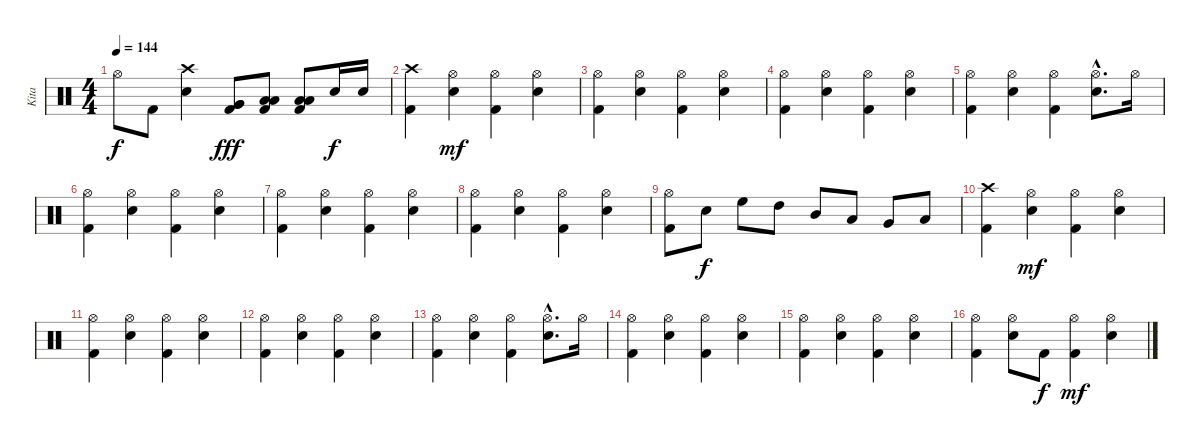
\track ("Kita" "Kita") {instrument percussion}
\staff {score}
\articulation defaults
\ts (4 4)
\tempo 144
\clef neutral
\ks c "Hi-Hat (open)".8{dy f} "Kick (hit) 2".8
("Crash high (hit)" "Snare (hit) 2").4 ("Kick (hit) 2" "Very Low Tom (hit)" "Very Low Tom (hit)").8{dy fff} ("Kick (hit) 2" "Low Floor Tom (hit)" "Low Floor Tom (hit)").8 ("Kick (hit) 2" "Low Floor Tom (hit)" "Low Floor Tom (hit)").8 "Snare (hit) 2".16{dy f} "Snare (hit) 2".16 |
("Kick (hit) 2" "Crash high (hit)").4 ("Hi-Hat (open)" "Snare (hit) 2").4{dy mf} ("Kick (hit) 2" "Hi-Hat (open)").4 ("Hi-Hat (open)" "Snare (hit) 2").4 |
("Kick (hit) 2" "Hi-Hat (open)").4 ("Hi-Hat (open)" "Snare (hit) 2").4 ("Kick (hit) 2" "Hi-Hat (open)").4 ("Hi-Hat (open)" "Snare (hit) 2").4 |
("Kick (hit) 2" "Hi-Hat (open)").4 ("Hi-Hat (open)" "Snare (hit) 2").4 ("Kick (hit) 2" "Hi-Hat (open)").4 ("Hi-Hat (open)" "Snare (hit) 2").4 |
("Kick (hit) 2" "Hi-Hat (open)").4 ("Hi-Hat (open)" "Snare (hit) 2").4 ("Kick (hit) 2" "Hi-Hat (open)").4 ("Hi-Hat (open)"{hac} "Snare (hit) 2"{hac}).8{d} "Hi-Hat (open)".16 |
("Kick (hit) 2" "Hi-Hat (open)").4 ("Hi-Hat (open)" "Snare (hit) 2").4 ("Kick (hit) 2" "Hi-Hat (open)").4 ("Hi-Hat (open)" "Snare (hit) 2").4 |
("Kick (hit) 2" "Hi-Hat (open)").4 ("Hi-Hat (open)" "Snare (hit) 2").4 ("Kick (hit) 2" "Hi-Hat (open)").4 ("Hi-Hat (open)" "Snare (hit) 2").4 |
("Kick (hit) 2" "Hi-Hat (open)").4 ("Hi-Hat (open)" "Snare (hit) 2").4 ("Kick (hit) 2" "Hi-Hat (open)").4 ("Hi-Hat (open)" "Snare (hit) 2").4 |
("Kick (hit) 2" "Hi-Hat (open)").8 "Snare (hit) 2".8{dy f} "High Floor Tom (hit)".8 "High Tom (hit)".8 "Mid Tom (hit)".8 "Low Tom (hit)".8 "Very Low Tom (hit)".8 "Low Floor Tom (hit)".8 |
("Kick (hit) 2" "Crash high (hit)").4 ("Hi-Hat (open)" "Snare (hit) 2").4{dy mf} ("Kick (hit) 2" "Hi-Hat (open)").4 ("Hi-Hat (open)" "Snare (hit) 2").4 |
("Kick (hit) 2" "Hi-Hat (open)").4 ("Hi-Hat (open)" "Snare (hit) 2").4 ("Kick (hit) 2" "Hi-Hat (open)").4 ("Hi-Hat (open)" "Snare (hit) 2").4 |
("Kick (hit) 2" "Hi-Hat (open)").4 ("Hi-Hat (open)" "Snare (hit) 2").4 ("Kick (hit) 2" "Hi-Hat (open)").4 ("Hi-Hat (open)" "Snare (hit) 2").4 |
("Kick (hit) 2" "Hi-Hat (open)").4 ("Hi-Hat (open)" "Snare (hit) 2").4 ("Kick (hit) 2" "Hi-Hat (open)").4 ("Hi-Hat (open)"{hac} "Snare (hit) 2"{hac}).8{d} "Hi-Hat (open)".16 |
("Kick (hit) 2" "Hi-Hat (open)").4 ("Hi-Hat (open)" "Snare (hit) 2").4 ("Kick (hit) 2" "Hi-Hat (open)").4 ("Hi-Hat (open)" "Snare (hit) 2").4 |
("Kick (hit) 2" "Hi-Hat (open)").4 ("Hi-Hat (open)" "Snare (hit) 2").4 ("Kick (hit) 2" "Hi-Hat (open)").4 ("Hi-Hat (open)" "Snare (hit) 2").4 |
("Kick (hit) 2" "Hi-Hat (open)").4 ("Hi-Hat (open)" "Snare (hit) 2").8 "Kick (hit) 2".8{dy f} ("Kick (hit) 2" "Hi-Hat (open)").4{dy mf} ("Hi-Hat (open)" "Snare (hit) 2").4
